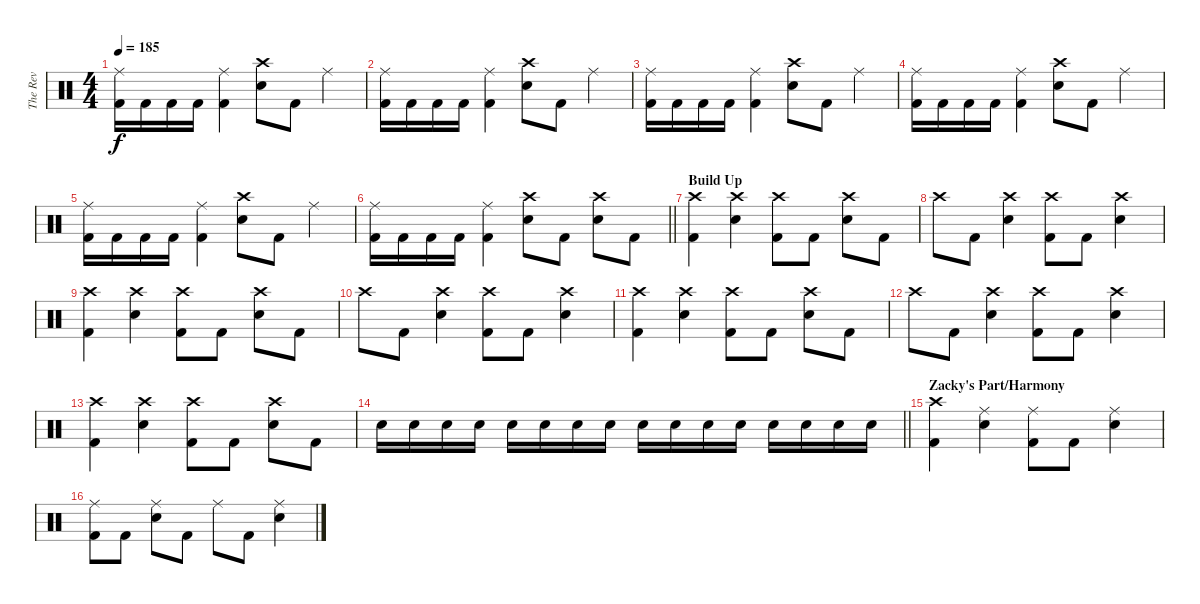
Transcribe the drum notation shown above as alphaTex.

\track ("The Rev" "The Rev") {instrument percussion}
\staff {score}
\articulation defaults
\ts (4 4)
\tempo 185
\clef neutral
\ks c
("Ride (middle)" "Kick (hit) 2").16{dy f} "Kick (hit) 2".16 "Kick (hit) 2".16 "Kick (hit) 2".16 ("Ride (middle)" "Kick (hit) 2").4 ("Crash high (hit)" "Electric Snare (hit)").8 "Kick (hit) 2".8 "Ride (middle)".4 |
("Ride (middle)" "Kick (hit) 2").16 "Kick (hit) 2".16 "Kick (hit) 2".16 "Kick (hit) 2".16 ("Ride (middle)" "Kick (hit) 2").4 ("Crash high (hit)" "Electric Snare (hit)").8 "Kick (hit) 2".8 "Ride (middle)".4 |
("Ride (middle)" "Kick (hit) 2").16 "Kick (hit) 2".16 "Kick (hit) 2".16 "Kick (hit) 2".16 ("Ride (middle)" "Kick (hit) 2").4 ("Crash high (hit)" "Electric Snare (hit)").8 "Kick (hit) 2".8 "Ride (middle)".4 |
("Ride (middle)" "Kick (hit) 2").16 "Kick (hit) 2".16 "Kick (hit) 2".16 "Kick (hit) 2".16 ("Ride (middle)" "Kick (hit) 2").4 ("Crash high (hit)" "Electric Snare (hit)").8 "Kick (hit) 2".8 "Ride (middle)".4 |
("Ride (middle)" "Kick (hit) 2").16 "Kick (hit) 2".16 "Kick (hit) 2".16 "Kick (hit) 2".16 ("Ride (middle)" "Kick (hit) 2").4 ("Crash high (hit)" "Electric Snare (hit)").8 "Kick (hit) 2".8 "Ride (middle)".4 |
\barLineRight lightlight
("Ride (middle)" "Kick (hit) 2").16 "Kick (hit) 2".16 "Kick (hit) 2".16 "Kick (hit) 2".16 ("Ride (middle)" "Kick (hit) 2").4 ("Crash high (hit)" "Electric Snare (hit)").8 "Kick (hit) 2".8 ("Crash high (hit)" "Electric Snare (hit)").8 "Kick (hit) 2".8 |
\section ("" "Build Up")
("Crash high (hit)" "Kick (hit) 2").4 ("Crash high (hit)" "Electric Snare (hit)").4 ("Crash high (hit)" "Kick (hit) 2").8 "Kick (hit) 2".8 ("Crash high (hit)" "Electric Snare (hit)").8 "Kick (hit) 2".8 |
"Crash high (hit)".8 "Kick (hit) 2".8 ("Crash high (hit)" "Electric Snare (hit)").4 ("Crash high (hit)" "Kick (hit) 2").8 "Kick (hit) 2".8 ("Crash high (hit)" "Electric Snare (hit)").4 |
("Crash high (hit)" "Kick (hit) 2").4 ("Crash high (hit)" "Electric Snare (hit)").4 ("Crash high (hit)" "Kick (hit) 2").8 "Kick (hit) 2".8 ("Crash high (hit)" "Electric Snare (hit)").8 "Kick (hit) 2".8 |
"Crash high (hit)".8 "Kick (hit) 2".8 ("Crash high (hit)" "Electric Snare (hit)").4 ("Crash high (hit)" "Kick (hit) 2").8 "Kick (hit) 2".8 ("Crash high (hit)" "Electric Snare (hit)").4 |
("Crash high (hit)" "Kick (hit) 2").4 ("Crash high (hit)" "Electric Snare (hit)").4 ("Crash high (hit)" "Kick (hit) 2").8 "Kick (hit) 2".8 ("Crash high (hit)" "Electric Snare (hit)").8 "Kick (hit) 2".8 |
"Crash high (hit)".8 "Kick (hit) 2".8 ("Crash high (hit)" "Electric Snare (hit)").4 ("Crash high (hit)" "Kick (hit) 2").8 "Kick (hit) 2".8 ("Crash high (hit)" "Electric Snare (hit)").4 |
("Crash high (hit)" "Kick (hit) 2").4 ("Crash high (hit)" "Electric Snare (hit)").4 ("Crash high (hit)" "Kick (hit) 2").8 "Kick (hit) 2".8 ("Crash high (hit)" "Electric Snare (hit)").8 "Kick (hit) 2".8 |
\barLineRight lightlight "Electric Snare (hit)".16 "Electric Snare (hit)".16 "Electric Snare (hit)".16 "Electric Snare (hit)".16 "Electric Snare (hit)".16 "Electric Snare (hit)".16 "Electric Snare (hit)".16 "Electric Snare (hit)".16 "Electric Snare (hit)".16 "Electric Snare (hit)".16 "Electric Snare (hit)".16 "Electric Snare (hit)".16 "Electric Snare (hit)".16 "Electric Snare (hit)".16 "Electric Snare (hit)".16 "Electric Snare (hit)".16
|
\section ("" "Zacky's Part/Harmony")
("Crash high (hit)" "Kick (hit) 2").4 ("Ride (middle)" "Electric Snare (hit)").4 ("Ride (middle)" "Kick (hit) 2").8 "Kick (hit) 2".8 ("Ride (middle)" "Electric Snare (hit)").4 |
("Ride (middle)" "Kick (hit) 2").8 "Kick (hit) 2".8 ("Ride (middle)" "Electric Snare (hit)").8 "Kick (hit) 2".8 "Ride (middle)".8 "Kick (hit) 2".8 ("Ride (middle)" "Electric Snare (hit)").4
